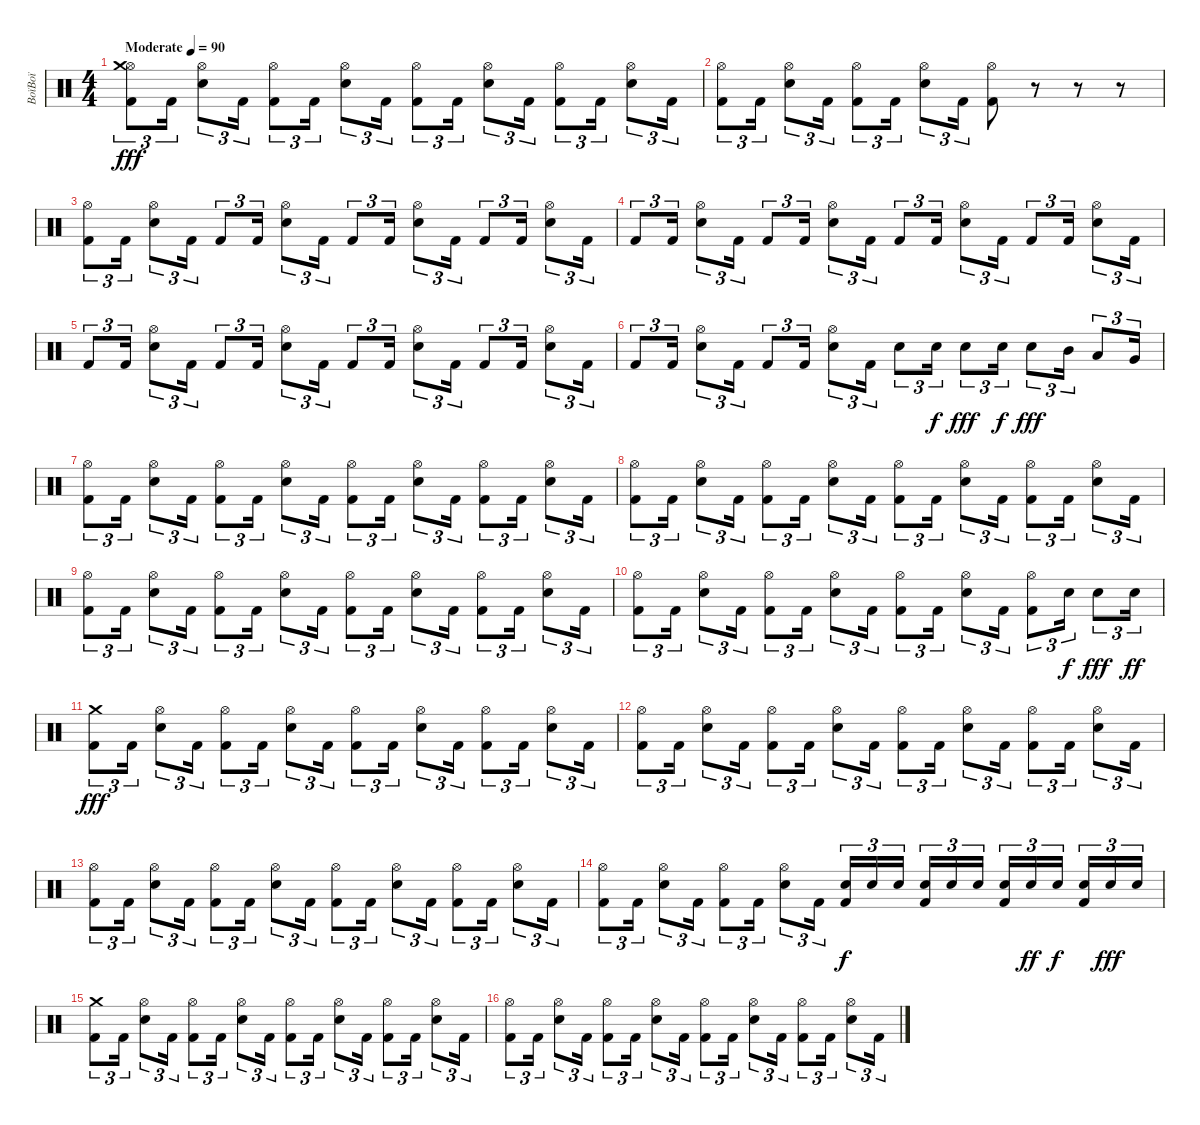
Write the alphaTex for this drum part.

\track ("BoïBoï" "BoïBoï") {instrument percussion}
\staff {score}
\articulation defaults
\ts (4 4)
\tempo (90 "Moderate")
\clef neutral
\ks c
("Hi-Hat (open)" "Crash medium (hit)" "Kick (hit) 2").8{tu (3 2) dy fff} "Kick (hit) 2".16{tu (3 2)} ("Hi-Hat (open)" "Electric Snare (hit)").8{tu (3 2)} "Kick (hit) 2".16{tu (3 2)} ("Hi-Hat (open)" "Kick (hit) 2").8{tu (3 2)} "Kick (hit) 2".16{tu (3 2)} ("Hi-Hat (open)" "Electric Snare (hit)").8{tu (3 2)} "Kick (hit) 2".16{tu (3 2)} ("Hi-Hat (open)" "Kick (hit) 2").8{tu (3 2)} "Kick (hit) 2".16{tu (3 2)} ("Hi-Hat (open)" "Electric Snare (hit)").8{tu (3 2)} "Kick (hit) 2".16{tu (3 2)} ("Hi-Hat (open)" "Kick (hit) 2").8{tu (3 2)} "Kick (hit) 2".16{tu (3 2)} ("Hi-Hat (open)" "Electric Snare (hit)").8{tu (3 2)} "Kick (hit) 2".16{tu (3 2)} |
("Hi-Hat (open)" "Kick (hit) 2").8{tu (3 2)} "Kick (hit) 2".16{tu (3 2)} ("Hi-Hat (open)" "Electric Snare (hit)").8{tu (3 2)} "Kick (hit) 2".16{tu (3 2)} ("Hi-Hat (open)" "Kick (hit) 2").8{tu (3 2)} "Kick (hit) 2".16{tu (3 2)} ("Hi-Hat (open)" "Electric Snare (hit)").8{tu (3 2)} "Kick (hit) 2".16{tu (3 2)} ("Hi-Hat (open)" "Kick (hit) 2").8 r.8 r.8 r.8 |
("Hi-Hat (open)" "Kick (hit) 2").8{tu (3 2)} "Kick (hit) 2".16{tu (3 2)} ("Hi-Hat (open)" "Electric Snare (hit)").8{tu (3 2)} "Kick (hit) 2".16{tu (3 2)} "Kick (hit) 2".8{tu (3 2)} "Kick (hit) 2".16{tu (3 2)} ("Hi-Hat (open)" "Electric Snare (hit)").8{tu (3 2)} "Kick (hit) 2".16{tu (3 2)} "Kick (hit) 2".8{tu (3 2)} "Kick (hit) 2".16{tu (3 2)} ("Hi-Hat (open)" "Electric Snare (hit)").8{tu (3 2)} "Kick (hit) 2".16{tu (3 2)} "Kick (hit) 2".8{tu (3 2)} "Kick (hit) 2".16{tu (3 2)} ("Hi-Hat (open)" "Electric Snare (hit)").8{tu (3 2)} "Kick (hit) 2".16{tu (3 2)} |
"Kick (hit) 2".8{tu (3 2)} "Kick (hit) 2".16{tu (3 2)} ("Hi-Hat (open)" "Electric Snare (hit)").8{tu (3 2)} "Kick (hit) 2".16{tu (3 2)} "Kick (hit) 2".8{tu (3 2)} "Kick (hit) 2".16{tu (3 2)} ("Hi-Hat (open)" "Electric Snare (hit)").8{tu (3 2)} "Kick (hit) 2".16{tu (3 2)} "Kick (hit) 2".8{tu (3 2)} "Kick (hit) 2".16{tu (3 2)} ("Hi-Hat (open)" "Electric Snare (hit)").8{tu (3 2)} "Kick (hit) 2".16{tu (3 2)} "Kick (hit) 2".8{tu (3 2)} "Kick (hit) 2".16{tu (3 2)} ("Hi-Hat (open)" "Electric Snare (hit)").8{tu (3 2)} "Kick (hit) 2".16{tu (3 2)} |
"Kick (hit) 2".8{tu (3 2)} "Kick (hit) 2".16{tu (3 2)} ("Hi-Hat (open)" "Electric Snare (hit)").8{tu (3 2)} "Kick (hit) 2".16{tu (3 2)} "Kick (hit) 2".8{tu (3 2)} "Kick (hit) 2".16{tu (3 2)} ("Hi-Hat (open)" "Electric Snare (hit)").8{tu (3 2)} "Kick (hit) 2".16{tu (3 2)} "Kick (hit) 2".8{tu (3 2)} "Kick (hit) 2".16{tu (3 2)} ("Hi-Hat (open)" "Electric Snare (hit)").8{tu (3 2)} "Kick (hit) 2".16{tu (3 2)} "Kick (hit) 2".8{tu (3 2)} "Kick (hit) 2".16{tu (3 2)} ("Hi-Hat (open)" "Electric Snare (hit)").8{tu (3 2)} "Kick (hit) 2".16{tu (3 2)} |
"Kick (hit) 2".8{tu (3 2)} "Kick (hit) 2".16{tu (3 2)} ("Hi-Hat (open)" "Electric Snare (hit)").8{tu (3 2)} "Kick (hit) 2".16{tu (3 2)} "Kick (hit) 2".8{tu (3 2)} "Kick (hit) 2".16{tu (3 2)} ("Hi-Hat (open)" "Electric Snare (hit)").8{tu (3 2)} "Kick (hit) 2".16{tu (3 2)} "Electric Snare (hit)".8{tu (3 2)} "Electric Snare (hit)".16{tu (3 2) dy f} "Electric Snare (hit)".8{tu (3 2) dy fff} "Electric Snare (hit)".16{tu (3 2) dy f} "Electric Snare (hit)".8{tu (3 2) dy fff} "Mid Tom (hit)".16{tu (3 2)} "Low Tom (hit)".8{tu (3 2)} "Very Low Tom (hit)".16{tu (3 2)} |
("Hi-Hat (open)" "Kick (hit) 2").8{tu (3 2)} "Kick (hit) 2".16{tu (3 2)} ("Hi-Hat (open)" "Electric Snare (hit)").8{tu (3 2)} "Kick (hit) 2".16{tu (3 2)} ("Hi-Hat (open)" "Kick (hit) 2").8{tu (3 2)} "Kick (hit) 2".16{tu (3 2)} ("Hi-Hat (open)" "Electric Snare (hit)").8{tu (3 2)} "Kick (hit) 2".16{tu (3 2)} ("Hi-Hat (open)" "Kick (hit) 2").8{tu (3 2)} "Kick (hit) 2".16{tu (3 2)} ("Hi-Hat (open)" "Electric Snare (hit)").8{tu (3 2)} "Kick (hit) 2".16{tu (3 2)} ("Hi-Hat (open)" "Kick (hit) 2").8{tu (3 2)} "Kick (hit) 2".16{tu (3 2)} ("Hi-Hat (open)" "Electric Snare (hit)").8{tu (3 2)} "Kick (hit) 2".16{tu (3 2)} |
("Hi-Hat (open)" "Kick (hit) 2").8{tu (3 2)} "Kick (hit) 2".16{tu (3 2)} ("Hi-Hat (open)" "Electric Snare (hit)").8{tu (3 2)} "Kick (hit) 2".16{tu (3 2)} ("Hi-Hat (open)" "Kick (hit) 2").8{tu (3 2)} "Kick (hit) 2".16{tu (3 2)} ("Hi-Hat (open)" "Electric Snare (hit)").8{tu (3 2)} "Kick (hit) 2".16{tu (3 2)} ("Hi-Hat (open)" "Kick (hit) 2").8{tu (3 2)} "Kick (hit) 2".16{tu (3 2)} ("Hi-Hat (open)" "Electric Snare (hit)").8{tu (3 2)} "Kick (hit) 2".16{tu (3 2)} ("Hi-Hat (open)" "Kick (hit) 2").8{tu (3 2)} "Kick (hit) 2".16{tu (3 2)} ("Hi-Hat (open)" "Electric Snare (hit)").8{tu (3 2)} "Kick (hit) 2".16{tu (3 2)} |
("Hi-Hat (open)" "Kick (hit) 2").8{tu (3 2)} "Kick (hit) 2".16{tu (3 2)} ("Hi-Hat (open)" "Electric Snare (hit)").8{tu (3 2)} "Kick (hit) 2".16{tu (3 2)} ("Hi-Hat (open)" "Kick (hit) 2").8{tu (3 2)} "Kick (hit) 2".16{tu (3 2)} ("Hi-Hat (open)" "Electric Snare (hit)").8{tu (3 2)} "Kick (hit) 2".16{tu (3 2)} ("Hi-Hat (open)" "Kick (hit) 2").8{tu (3 2)} "Kick (hit) 2".16{tu (3 2)} ("Hi-Hat (open)" "Electric Snare (hit)").8{tu (3 2)} "Kick (hit) 2".16{tu (3 2)} ("Hi-Hat (open)" "Kick (hit) 2").8{tu (3 2)} "Kick (hit) 2".16{tu (3 2)} ("Hi-Hat (open)" "Electric Snare (hit)").8{tu (3 2)} "Kick (hit) 2".16{tu (3 2)} |
("Hi-Hat (open)" "Kick (hit) 2").8{tu (3 2)} "Kick (hit) 2".16{tu (3 2)} ("Hi-Hat (open)" "Electric Snare (hit)").8{tu (3 2)} "Kick (hit) 2".16{tu (3 2)} ("Hi-Hat (open)" "Kick (hit) 2").8{tu (3 2)} "Kick (hit) 2".16{tu (3 2)} ("Hi-Hat (open)" "Electric Snare (hit)").8{tu (3 2)} "Kick (hit) 2".16{tu (3 2)} ("Hi-Hat (open)" "Kick (hit) 2").8{tu (3 2)} "Kick (hit) 2".16{tu (3 2)} ("Hi-Hat (open)" "Electric Snare (hit)").8{tu (3 2)} "Kick (hit) 2".16{tu (3 2)} ("Hi-Hat (open)" "Kick (hit) 2").8{tu (3 2)} "Electric Snare (hit)".16{tu (3 2) dy f} "Electric Snare (hit)".8{tu (3 2) dy fff} "Electric Snare (hit)".16{tu (3 2) dy ff} |
("Crash medium (hit)" "Kick (hit) 2").8{tu (3 2) dy fff} "Kick (hit) 2".16{tu (3 2)} ("Hi-Hat (open)" "Electric Snare (hit)").8{tu (3 2)} "Kick (hit) 2".16{tu (3 2)} ("Hi-Hat (open)" "Kick (hit) 2").8{tu (3 2)} "Kick (hit) 2".16{tu (3 2)} ("Hi-Hat (open)" "Electric Snare (hit)").8{tu (3 2)} "Kick (hit) 2".16{tu (3 2)} ("Hi-Hat (open)" "Kick (hit) 2").8{tu (3 2)} "Kick (hit) 2".16{tu (3 2)} ("Hi-Hat (open)" "Electric Snare (hit)").8{tu (3 2)} "Kick (hit) 2".16{tu (3 2)} ("Hi-Hat (open)" "Kick (hit) 2").8{tu (3 2)} "Kick (hit) 2".16{tu (3 2)} ("Hi-Hat (open)" "Electric Snare (hit)").8{tu (3 2)} "Kick (hit) 2".16{tu (3 2)} |
("Hi-Hat (open)" "Kick (hit) 2").8{tu (3 2)} "Kick (hit) 2".16{tu (3 2)} ("Hi-Hat (open)" "Electric Snare (hit)").8{tu (3 2)} "Kick (hit) 2".16{tu (3 2)} ("Hi-Hat (open)" "Kick (hit) 2").8{tu (3 2)} "Kick (hit) 2".16{tu (3 2)} ("Hi-Hat (open)" "Electric Snare (hit)").8{tu (3 2)} "Kick (hit) 2".16{tu (3 2)} ("Hi-Hat (open)" "Kick (hit) 2").8{tu (3 2)} "Kick (hit) 2".16{tu (3 2)} ("Hi-Hat (open)" "Electric Snare (hit)").8{tu (3 2)} "Kick (hit) 2".16{tu (3 2)} ("Hi-Hat (open)" "Kick (hit) 2").8{tu (3 2)} "Kick (hit) 2".16{tu (3 2)} ("Hi-Hat (open)" "Electric Snare (hit)").8{tu (3 2)} "Kick (hit) 2".16{tu (3 2)} |
("Hi-Hat (open)" "Kick (hit) 2").8{tu (3 2)} "Kick (hit) 2".16{tu (3 2)} ("Hi-Hat (open)" "Electric Snare (hit)").8{tu (3 2)} "Kick (hit) 2".16{tu (3 2)} ("Hi-Hat (open)" "Kick (hit) 2").8{tu (3 2)} "Kick (hit) 2".16{tu (3 2)} ("Hi-Hat (open)" "Electric Snare (hit)").8{tu (3 2)} "Kick (hit) 2".16{tu (3 2)} ("Hi-Hat (open)" "Kick (hit) 2").8{tu (3 2)} "Kick (hit) 2".16{tu (3 2)} ("Hi-Hat (open)" "Electric Snare (hit)").8{tu (3 2)} "Kick (hit) 2".16{tu (3 2)} ("Hi-Hat (open)" "Kick (hit) 2").8{tu (3 2)} "Kick (hit) 2".16{tu (3 2)} ("Hi-Hat (open)" "Electric Snare (hit)").8{tu (3 2)} "Kick (hit) 2".16{tu (3 2)} |
("Hi-Hat (open)" "Kick (hit) 2").8{tu (3 2)} "Kick (hit) 2".16{tu (3 2)} ("Hi-Hat (open)" "Electric Snare (hit)").8{tu (3 2)} "Kick (hit) 2".16{tu (3 2)} ("Hi-Hat (open)" "Kick (hit) 2").8{tu (3 2)} "Kick (hit) 2".16{tu (3 2)} ("Hi-Hat (open)" "Electric Snare (hit)").8{tu (3 2)} "Kick (hit) 2".16{tu (3 2)} ("Electric Snare (hit)" "Kick (hit) 2").16{tu (3 2) dy f} "Electric Snare (hit)".16{tu (3 2)} "Electric Snare (hit)".16{tu (3 2) beam splitsecondary} ("Electric Snare (hit)" "Kick (hit) 2").16{tu (3 2)} "Electric Snare (hit)".16{tu (3 2)} "Electric Snare (hit)".16{tu (3 2)} ("Electric Snare (hit)" "Kick (hit) 2").16{tu (3 2)} "Electric Snare (hit)".16{tu (3 2) dy ff} "Electric Snare (hit)".16{tu (3 2) dy f beam splitsecondary} ("Electric Snare (hit)" "Kick (hit) 2").16{tu (3 2)} "Electric Snare (hit)".16{tu (3 2) dy fff} "Electric Snare (hit)".16{tu (3 2)} |
("Crash medium (hit)" "Kick (hit) 2").8{tu (3 2)} "Kick (hit) 2".16{tu (3 2)} ("Hi-Hat (open)" "Electric Snare (hit)").8{tu (3 2)} "Kick (hit) 2".16{tu (3 2)} ("Hi-Hat (open)" "Kick (hit) 2").8{tu (3 2)} "Kick (hit) 2".16{tu (3 2)} ("Hi-Hat (open)" "Electric Snare (hit)").8{tu (3 2)} "Kick (hit) 2".16{tu (3 2)} ("Hi-Hat (open)" "Kick (hit) 2").8{tu (3 2)} "Kick (hit) 2".16{tu (3 2)} ("Hi-Hat (open)" "Electric Snare (hit)").8{tu (3 2)} "Kick (hit) 2".16{tu (3 2)} ("Hi-Hat (open)" "Kick (hit) 2").8{tu (3 2)} "Kick (hit) 2".16{tu (3 2)} ("Hi-Hat (open)" "Electric Snare (hit)").8{tu (3 2)} "Kick (hit) 2".16{tu (3 2)} |
("Hi-Hat (open)" "Kick (hit) 2").8{tu (3 2)} "Kick (hit) 2".16{tu (3 2)} ("Hi-Hat (open)" "Electric Snare (hit)").8{tu (3 2)} "Kick (hit) 2".16{tu (3 2)} ("Hi-Hat (open)" "Kick (hit) 2").8{tu (3 2)} "Kick (hit) 2".16{tu (3 2)} ("Hi-Hat (open)" "Electric Snare (hit)").8{tu (3 2)} "Kick (hit) 2".16{tu (3 2)} ("Hi-Hat (open)" "Kick (hit) 2").8{tu (3 2)} "Kick (hit) 2".16{tu (3 2)} ("Hi-Hat (open)" "Electric Snare (hit)").8{tu (3 2)} "Kick (hit) 2".16{tu (3 2)} ("Hi-Hat (open)" "Kick (hit) 2").8{tu (3 2)} "Kick (hit) 2".16{tu (3 2)} ("Hi-Hat (open)" "Electric Snare (hit)").8{tu (3 2)} "Kick (hit) 2".16{tu (3 2)}
